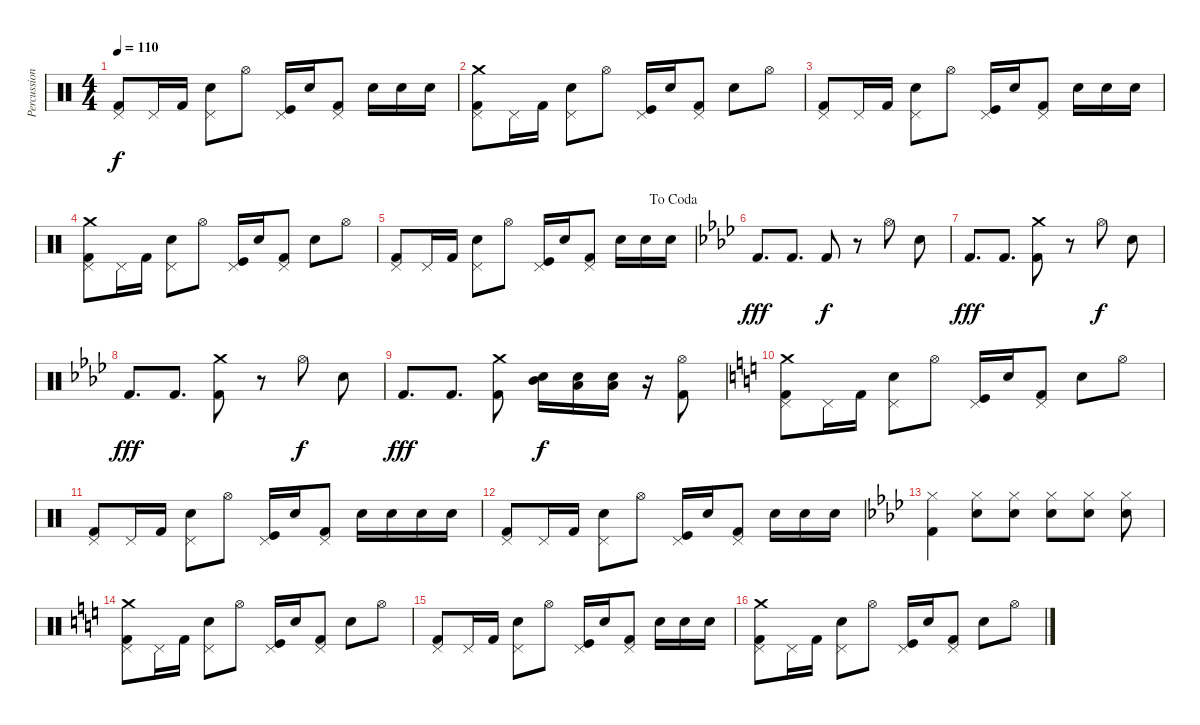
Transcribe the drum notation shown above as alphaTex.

\track ("Percussions" "Percussion") {instrument percussion}
\staff {score}
\articulation defaults
\ts (4 4)
\tempo 110
\clef neutral
\ks c
("Kick (hit) 2" "Pedal Hi-Hat (hit)").8{dy f} "Pedal Hi-Hat (hit)".16 "Kick (hit) 2".16 ("Electric Snare (hit)" "Pedal Hi-Hat (hit)").8 "Hi-Hat (open)".8 ("Kick (hit)" "Pedal Hi-Hat (hit)").16 "Electric Snare (hit)".16 ("Kick (hit) 2" "Pedal Hi-Hat (hit)").8 "Electric Snare (hit)".16 "Electric Snare (hit)".16 "Electric Snare (hit)".16 |
("Kick (hit) 2" "Pedal Hi-Hat (hit)" "Crash medium (hit)").8 "Pedal Hi-Hat (hit)".16 "Kick (hit) 2".16 ("Electric Snare (hit)" "Pedal Hi-Hat (hit)").8 "Hi-Hat (open)".8 ("Kick (hit)" "Pedal Hi-Hat (hit)").16 "Electric Snare (hit)".16 ("Kick (hit) 2" "Pedal Hi-Hat (hit)").8 "Electric Snare (hit)".8 "Hi-Hat (open)".8 |
("Kick (hit) 2" "Pedal Hi-Hat (hit)").8 "Pedal Hi-Hat (hit)".16 "Kick (hit) 2".16 ("Electric Snare (hit)" "Pedal Hi-Hat (hit)").8 "Hi-Hat (open)".8 ("Kick (hit)" "Pedal Hi-Hat (hit)").16 "Electric Snare (hit)".16 ("Kick (hit) 2" "Pedal Hi-Hat (hit)").8 "Electric Snare (hit)".16 "Electric Snare (hit)".16 "Electric Snare (hit)".16 |
("Kick (hit) 2" "Pedal Hi-Hat (hit)" "Crash medium (hit)").8 "Pedal Hi-Hat (hit)".16 "Kick (hit) 2".16 ("Electric Snare (hit)" "Pedal Hi-Hat (hit)").8 "Hi-Hat (open)".8 ("Kick (hit)" "Pedal Hi-Hat (hit)").16 "Electric Snare (hit)".16 ("Kick (hit) 2" "Pedal Hi-Hat (hit)").8 "Electric Snare (hit)".8 "Hi-Hat (open)".8 |
\jump dacoda
("Kick (hit) 2" "Pedal Hi-Hat (hit)").8 "Pedal Hi-Hat (hit)".16 "Kick (hit) 2".16 ("Electric Snare (hit)" "Pedal Hi-Hat (hit)").8 "Hi-Hat (open)".8 ("Kick (hit)" "Pedal Hi-Hat (hit)").16 "Electric Snare (hit)".16 ("Kick (hit) 2" "Pedal Hi-Hat (hit)").8 "Electric Snare (hit)".16 "Electric Snare (hit)".16 "Electric Snare (hit)".16 |
\ks ab "Kick (hit) 2".8{d dy fff} "Kick (hit) 2".8{d} "Kick (hit) 2".8{dy f}
r.8 "Hi-Hat (open)".8 "Electric Snare (hit)".8 |
"Kick (hit) 2".8{d dy fff} "Kick (hit) 2".8{d} ("Kick (hit) 2" "Crash medium (hit)").8 r.8 "Hi-Hat (open)".8{dy f} "Electric Snare (hit)".8 |
"Kick (hit) 2".8{d dy fff} "Kick (hit) 2".8{d} ("Kick (hit) 2" "Crash medium (hit)").8 r.8 "Hi-Hat (open)".8{dy f} "Electric Snare (hit)".8 |
"Kick (hit) 2".8{d dy fff} "Kick (hit) 2".8{d} ("Kick (hit) 2" "Crash medium (hit)").8 ("Mid Tom (hit)" "Electric Snare (hit)").16{dy f} ("Low Tom (hit)" "Electric Snare (hit)").16 ("Low Floor Tom (hit)" "Electric Snare (hit)").16 r.16 ("Hi-Hat (open)" "Kick (hit) 2").8 |
\ks c
("Kick (hit) 2" "Pedal Hi-Hat (hit)" "Crash medium (hit)").8 "Pedal Hi-Hat (hit)".16 "Kick (hit) 2".16 ("Electric Snare (hit)" "Pedal Hi-Hat (hit)").8 "Hi-Hat (open)".8 ("Kick (hit)" "Pedal Hi-Hat (hit)").16 "Electric Snare (hit)".16 ("Kick (hit) 2" "Pedal Hi-Hat (hit)").8 "Electric Snare (hit)".8 "Hi-Hat (open)".8 |
("Kick (hit) 2" "Pedal Hi-Hat (hit)").8 "Pedal Hi-Hat (hit)".16 "Kick (hit) 2".16 ("Electric Snare (hit)" "Pedal Hi-Hat (hit)").8 "Hi-Hat (open)".8 ("Kick (hit)" "Pedal Hi-Hat (hit)").16 "Electric Snare (hit)".16 ("Kick (hit) 2" "Pedal Hi-Hat (hit)").8 "Electric Snare (hit)".16 "Electric Snare (hit)".16 "Electric Snare (hit)".16 "Electric Snare (hit)".16 |
("Kick (hit) 2" "Pedal Hi-Hat (hit)").8 "Pedal Hi-Hat (hit)".16 "Kick (hit) 2".16 ("Electric Snare (hit)" "Pedal Hi-Hat (hit)").8 "Hi-Hat (open)".8 ("Kick (hit)" "Pedal Hi-Hat (hit)").16 "Electric Snare (hit)".16 ("Kick (hit) 2" "Pedal Hi-Hat (hit)").8 "Electric Snare (hit)".16 "Electric Snare (hit)".16 "Electric Snare (hit)".16 |
\ks ab
("Hi-Hat (closed)" "Kick (hit) 2").4 ("Hi-Hat (closed)" "Electric Snare (hit)").8 ("Hi-Hat (closed)" "Electric Snare (hit)").8 ("Hi-Hat (closed)" "Electric Snare (hit)").8 ("Hi-Hat (closed)" "Electric Snare (hit)").8 ("Hi-Hat (closed)" "Electric Snare (hit)").8 |
\ks c
("Kick (hit) 2" "Pedal Hi-Hat (hit)" "Crash medium (hit)").8 "Pedal Hi-Hat (hit)".16 "Kick (hit) 2".16 ("Electric Snare (hit)" "Pedal Hi-Hat (hit)").8 "Hi-Hat (open)".8 ("Kick (hit)" "Pedal Hi-Hat (hit)").16 "Electric Snare (hit)".16 ("Kick (hit) 2" "Pedal Hi-Hat (hit)").8 "Electric Snare (hit)".8 "Hi-Hat (open)".8 |
("Kick (hit) 2" "Pedal Hi-Hat (hit)").8 "Pedal Hi-Hat (hit)".16 "Kick (hit) 2".16 ("Electric Snare (hit)" "Pedal Hi-Hat (hit)").8 "Hi-Hat (open)".8 ("Kick (hit)" "Pedal Hi-Hat (hit)").16 "Electric Snare (hit)".16 ("Kick (hit) 2" "Pedal Hi-Hat (hit)").8 "Electric Snare (hit)".16 "Electric Snare (hit)".16 "Electric Snare (hit)".16 |
("Kick (hit) 2" "Pedal Hi-Hat (hit)" "Crash medium (hit)").8 "Pedal Hi-Hat (hit)".16 "Kick (hit) 2".16 ("Electric Snare (hit)" "Pedal Hi-Hat (hit)").8 "Hi-Hat (open)".8 ("Kick (hit)" "Pedal Hi-Hat (hit)").16 "Electric Snare (hit)".16 ("Kick (hit) 2" "Pedal Hi-Hat (hit)").8 "Electric Snare (hit)".8 "Hi-Hat (open)".8
